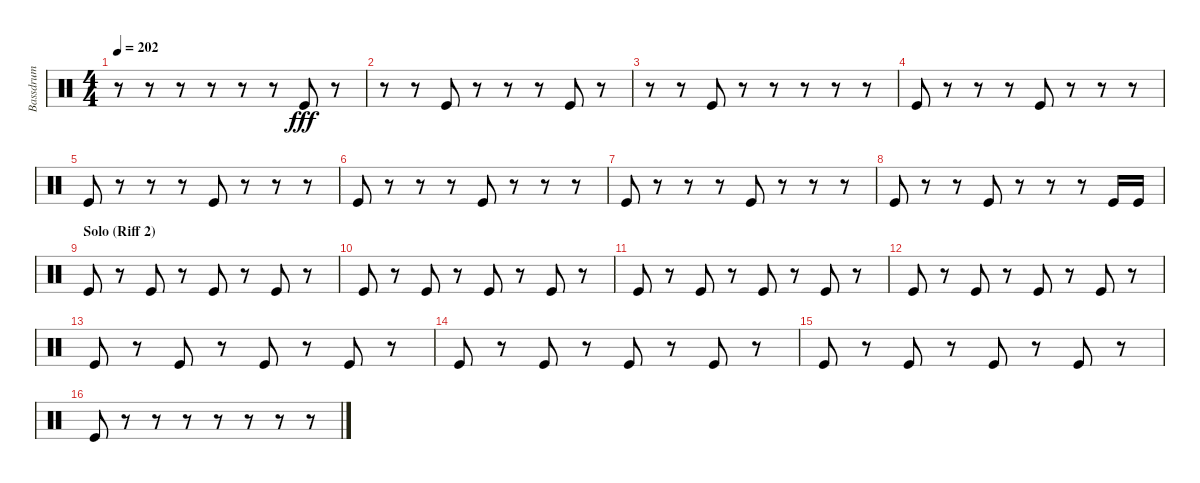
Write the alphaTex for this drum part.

\track ("Bassdrum" "Bassdrum") {instrument percussion}
\staff {score}
\articulation defaults
\ts (4 4)
\tempo 202
\clef neutral
\ks c
r.8{dy fff} r.8 r.8 r.8 r.8 r.8 "Kick (hit)".8 r.8 |
r.8 r.8 "Kick (hit)".8 r.8 r.8 r.8 "Kick (hit)".8 r.8 |
r.8 r.8 "Kick (hit)".8 r.8 r.8 r.8 r.8 r.8 |
"Kick (hit)".8 r.8 r.8 r.8 "Kick (hit)".8 r.8 r.8 r.8 |
"Kick (hit)".8 r.8 r.8 r.8 "Kick (hit)".8 r.8 r.8 r.8 |
"Kick (hit)".8 r.8 r.8 r.8 "Kick (hit)".8 r.8 r.8 r.8 |
"Kick (hit)".8 r.8 r.8 r.8 "Kick (hit)".8 r.8 r.8 r.8 |
"Kick (hit)".8 r.8 r.8 "Kick (hit)".8 r.8 r.8 r.8 "Kick (hit)".16 "Kick (hit)".16 |
\section ("" "Solo (Riff 2)")
"Kick (hit)".8 r.8 "Kick (hit)".8 r.8 "Kick (hit)".8 r.8 "Kick (hit)".8 r.8 |
"Kick (hit)".8 r.8 "Kick (hit)".8 r.8 "Kick (hit)".8 r.8 "Kick (hit)".8 r.8 |
"Kick (hit)".8 r.8 "Kick (hit)".8 r.8 "Kick (hit)".8 r.8 "Kick (hit)".8 r.8 |
"Kick (hit)".8 r.8 "Kick (hit)".8 r.8 "Kick (hit)".8 r.8 "Kick (hit)".8 r.8 |
"Kick (hit)".8 r.8 "Kick (hit)".8 r.8 "Kick (hit)".8 r.8 "Kick (hit)".8 r.8 |
"Kick (hit)".8 r.8 "Kick (hit)".8 r.8 "Kick (hit)".8 r.8 "Kick (hit)".8 r.8 |
"Kick (hit)".8 r.8 "Kick (hit)".8 r.8 "Kick (hit)".8 r.8 "Kick (hit)".8 r.8 |
"Kick (hit)".8 r.8 r.8 r.8 r.8 r.8 r.8 r.8
